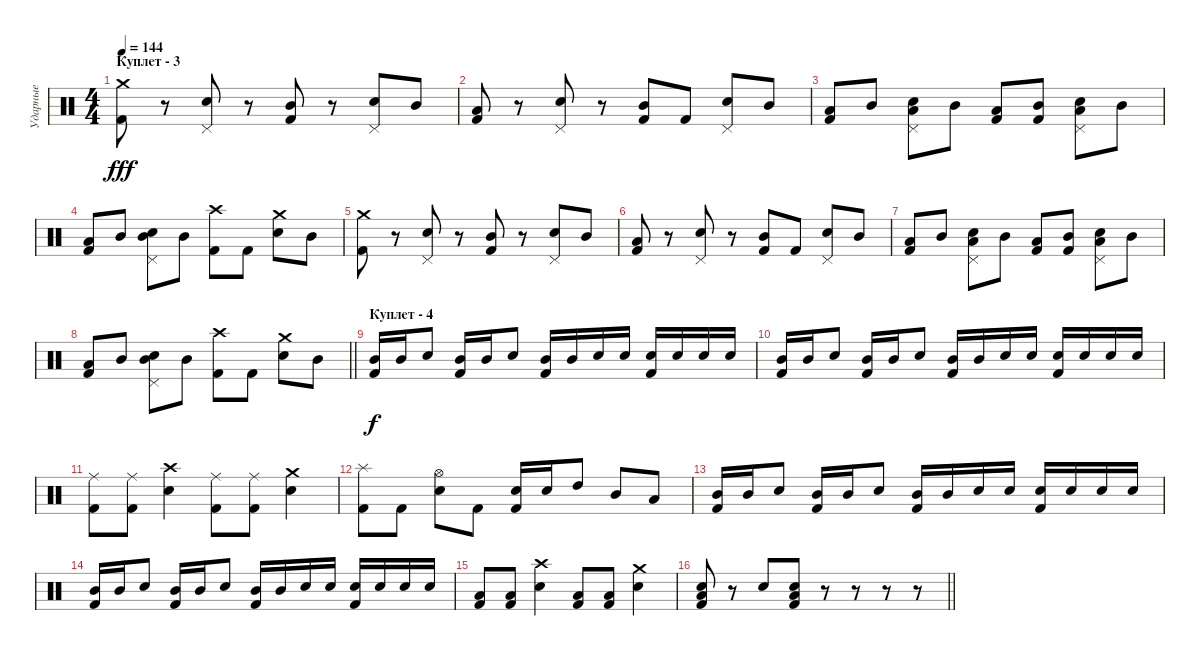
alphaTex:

\track ("Ударные" "Ударные") {instrument percussion}
\staff {score}
\articulation defaults
\ts (4 4)
\section ("" "Куплет - 3")
\tempo 144
\clef neutral
\ks c
("Crash medium (hit)" "Kick (hit) 2").8{dy fff} r.8 ("Snare (hit) 2" "Pedal Hi-Hat (hit)").8 r.8 ("Kick (hit) 2" "Mid Tom (hit)").8 r.8 ("Snare (hit) 2" "Pedal Hi-Hat (hit)").8 "Mid Tom (hit)".8 |
("Kick (hit) 2" "Low Floor Tom (hit)").8 r.8 ("Snare (hit) 2" "Pedal Hi-Hat (hit)").8 r.8 ("Kick (hit) 2" "Mid Tom (hit)").8 "Kick (hit) 2".8 ("Snare (hit) 2" "Pedal Hi-Hat (hit)").8 "Mid Tom (hit)".8 |
("Kick (hit) 2" "Low Floor Tom (hit)").8 "Mid Tom (hit)".8 ("Snare (hit) 2" "Low Floor Tom (hit)" "Pedal Hi-Hat (hit)").8 "Mid Tom (hit)".8 ("Kick (hit) 2" "Low Floor Tom (hit)").8 ("Kick (hit) 2" "Mid Tom (hit)").8 ("Snare (hit) 2" "Low Floor Tom (hit)" "Pedal Hi-Hat (hit)").8 "Mid Tom (hit)".8 |
("Kick (hit) 2" "Low Floor Tom (hit)").8 "Mid Tom (hit)".8 ("Snare (hit) 2" "Mid Tom (hit)" "Pedal Hi-Hat (hit)").8 "Mid Tom (hit)".8 ("Kick (hit) 2" "Crash high (hit)").8 "Kick (hit) 2".8 ("Snare (hit) 2" "Crash medium (hit)").8 "Mid Tom (hit)".8 |
("Crash medium (hit)" "Kick (hit) 2").8 r.8 ("Snare (hit) 2" "Pedal Hi-Hat (hit)").8 r.8 ("Kick (hit) 2" "Mid Tom (hit)").8 r.8 ("Snare (hit) 2" "Pedal Hi-Hat (hit)").8 "Mid Tom (hit)".8 |
("Kick (hit) 2" "Low Floor Tom (hit)").8 r.8 ("Snare (hit) 2" "Pedal Hi-Hat (hit)").8 r.8 ("Kick (hit) 2" "Mid Tom (hit)").8 "Kick (hit) 2".8 ("Snare (hit) 2" "Pedal Hi-Hat (hit)").8 "Mid Tom (hit)".8 |
("Kick (hit) 2" "Low Floor Tom (hit)").8 "Mid Tom (hit)".8 ("Snare (hit) 2" "Low Floor Tom (hit)" "Pedal Hi-Hat (hit)").8 "Mid Tom (hit)".8 ("Kick (hit) 2" "Low Floor Tom (hit)").8 ("Kick (hit) 2" "Mid Tom (hit)").8 ("Snare (hit) 2" "Low Floor Tom (hit)" "Pedal Hi-Hat (hit)").8 "Mid Tom (hit)".8 |
\barLineRight lightlight
("Kick (hit) 2" "Low Floor Tom (hit)").8 "Mid Tom (hit)".8 ("Snare (hit) 2" "Mid Tom (hit)" "Pedal Hi-Hat (hit)").8 "Mid Tom (hit)".8 ("Kick (hit) 2" "Crash high (hit)").8 "Kick (hit) 2".8 ("Snare (hit) 2" "Crash medium (hit)").8 "Mid Tom (hit)".8 |
\section ("" "Куплет - 4")
("Mid Tom (hit)" "Kick (hit) 2").16{dy f} "Mid Tom (hit)".16 "Snare (hit) 2".8 ("Mid Tom (hit)" "Kick (hit) 2").16 "Mid Tom (hit)".16 "Snare (hit) 2".8 ("Mid Tom (hit)" "Kick (hit) 2").16 "Mid Tom (hit)".16 "Snare (hit) 2".16 "Snare (hit) 2".16 ("Snare (hit) 2" "Kick (hit) 2").16 "Snare (hit) 2".16 "Snare (hit) 2".16 "Snare (hit) 2".16 |
("Mid Tom (hit)" "Kick (hit) 2").16 "Mid Tom (hit)".16 "Snare (hit) 2".8 ("Mid Tom (hit)" "Kick (hit) 2").16 "Mid Tom (hit)".16 "Snare (hit) 2".8 ("Mid Tom (hit)" "Kick (hit) 2").16 "Mid Tom (hit)".16 "Snare (hit) 2".16 "Snare (hit) 2".16 ("Snare (hit) 2" "Kick (hit) 2").16 "Snare (hit) 2".16 "Snare (hit) 2".16 "Snare (hit) 2".16 |
("Ride (middle)" "Kick (hit) 2").8 ("Ride (middle)" "Kick (hit) 2").8 ("Crash high (hit)" "Snare (hit) 2").4 ("Ride (middle)" "Kick (hit) 2").8 ("Ride (middle)" "Kick (hit) 2").8 ("Crash medium (hit)" "Snare (hit) 2").4 |
("Splash (hit)" "Kick (hit) 2").8 "Kick (hit) 2".8 ("Hi-Hat (open)" "Snare (hit) 2").8 "Kick (hit) 2".8 ("Snare (hit) 2" "Kick (hit) 2").16 "Snare (hit) 2".16 "High Tom (hit)".8 "Mid Tom (hit)".8 "Low Tom (hit)".8 |
("Mid Tom (hit)" "Kick (hit) 2").16 "Mid Tom (hit)".16 "Snare (hit) 2".8 ("Mid Tom (hit)" "Kick (hit) 2").16 "Mid Tom (hit)".16 "Snare (hit) 2".8 ("Mid Tom (hit)" "Kick (hit) 2").16 "Mid Tom (hit)".16 "Snare (hit) 2".16 "Snare (hit) 2".16 ("Snare (hit) 2" "Kick (hit) 2").16 "Snare (hit) 2".16 "Snare (hit) 2".16 "Snare (hit) 2".16 |
("Mid Tom (hit)" "Kick (hit) 2").16 "Mid Tom (hit)".16 "Snare (hit) 2".8 ("Mid Tom (hit)" "Kick (hit) 2").16 "Mid Tom (hit)".16 "Snare (hit) 2".8 ("Mid Tom (hit)" "Kick (hit) 2").16 "Mid Tom (hit)".16 "Snare (hit) 2".16 "Snare (hit) 2".16 ("Snare (hit) 2" "Kick (hit) 2").16 "Snare (hit) 2".16 "Snare (hit) 2".16 "Snare (hit) 2".16 |
("Low Floor Tom (hit)" "Kick (hit) 2").8 ("Low Floor Tom (hit)" "Kick (hit) 2").8 ("Crash high (hit)" "Snare (hit) 2").4 ("Low Floor Tom (hit)" "Kick (hit) 2").8 ("Low Floor Tom (hit)" "Kick (hit) 2").8 ("Crash medium (hit)" "Snare (hit) 2").4 |
\barLineRight lightlight
("Low Floor Tom (hit)" "Snare (hit) 2" "Kick (hit) 2").8 r.8 "Snare (hit) 2".8 ("Snare (hit) 2" "Low Tom (hit)" "Kick (hit) 2").8 r.8 r.8 r.8 r.8
